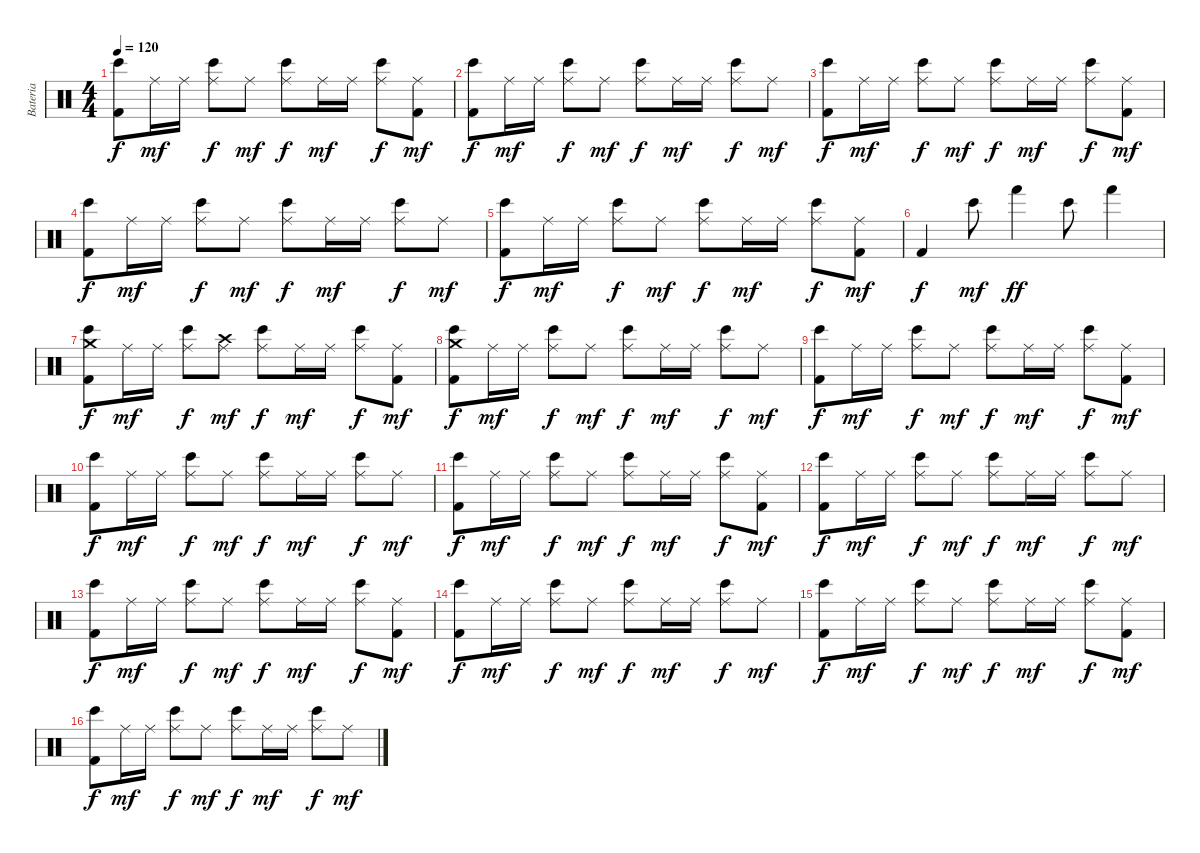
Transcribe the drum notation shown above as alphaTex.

\track ("Bateria" "Bateria") {instrument percussion}
\staff {score}
\articulation defaults
\ts (4 4)
\tempo 120
\clef neutral
\ks c
("Kick (hit) 2" "Bongo High (hit)").8{dy f} "Ride (middle)".16{dy mf} "Ride (middle)".16 ("Bongo High (hit)" "Ride (middle)").8{dy f} "Ride (middle)".8{dy mf} ("Bongo High (hit)" "Ride (middle)").8{dy f} "Ride (middle)".16{dy mf} "Ride (middle)".16 ("Bongo High (hit)" "Ride (middle)").8{dy f} ("Kick (hit) 2" "Ride (middle)").8{dy mf} |
("Kick (hit) 2" "Bongo High (hit)").8{dy f} "Ride (middle)".16{dy mf} "Ride (middle)".16 ("Bongo High (hit)" "Ride (middle)").8{dy f} "Ride (middle)".8{dy mf} ("Bongo High (hit)" "Ride (middle)").8{dy f} "Ride (middle)".16{dy mf} "Ride (middle)".16 ("Bongo High (hit)" "Ride (middle)").8{dy f} "Ride (middle)".8{dy mf} |
("Kick (hit) 2" "Bongo High (hit)").8{dy f} "Ride (middle)".16{dy mf} "Ride (middle)".16 ("Bongo High (hit)" "Ride (middle)").8{dy f} "Ride (middle)".8{dy mf} ("Bongo High (hit)" "Ride (middle)").8{dy f} "Ride (middle)".16{dy mf} "Ride (middle)".16 ("Bongo High (hit)" "Ride (middle)").8{dy f} ("Kick (hit) 2" "Ride (middle)").8{dy mf} |
("Kick (hit) 2" "Bongo High (hit)").8{dy f} "Ride (middle)".16{dy mf} "Ride (middle)".16 ("Bongo High (hit)" "Ride (middle)").8{dy f} "Ride (middle)".8{dy mf} ("Bongo High (hit)" "Ride (middle)").8{dy f} "Ride (middle)".16{dy mf} "Ride (middle)".16 ("Bongo High (hit)" "Ride (middle)").8{dy f} "Ride (middle)".8{dy mf} |
("Kick (hit) 2" "Bongo High (hit)").8{dy f} "Ride (middle)".16{dy mf} "Ride (middle)".16 ("Bongo High (hit)" "Ride (middle)").8{dy f} "Ride (middle)".8{dy mf} ("Bongo High (hit)" "Ride (middle)").8{dy f} "Ride (middle)".16{dy mf} "Ride (middle)".16 ("Bongo High (hit)" "Ride (middle)").8{dy f} ("Kick (hit) 2" "Ride (middle)").8{dy mf} |
"Kick (hit) 2".4{dy f} "Bongo High (hit)".8{dy mf} "Hand (hit)".4{dy ff} "Bongo High (hit)".8 "Hand (hit)".4 |
("Kick (hit) 2" "Bongo High (hit)" "Crash medium (hit)").8{dy f} "Ride (middle)".16{dy mf} "Ride (middle)".16 ("Bongo High (hit)" "Ride (middle)").8{dy f} ("Ride (middle)" "Crash high (hit)").8{dy mf} ("Bongo High (hit)" "Ride (middle)").8{dy f} "Ride (middle)".16{dy mf} "Ride (middle)".16 ("Bongo High (hit)" "Ride (middle)").8{dy f} ("Kick (hit) 2" "Ride (middle)").8{dy mf} |
("Kick (hit) 2" "Bongo High (hit)" "Crash medium (hit)").8{dy f} "Ride (middle)".16{dy mf} "Ride (middle)".16 ("Bongo High (hit)" "Ride (middle)").8{dy f} "Ride (middle)".8{dy mf} ("Bongo High (hit)" "Ride (middle)").8{dy f} "Ride (middle)".16{dy mf} "Ride (middle)".16 ("Bongo High (hit)" "Ride (middle)").8{dy f} "Ride (middle)".8{dy mf} |
("Kick (hit) 2" "Bongo High (hit)").8{dy f} "Ride (middle)".16{dy mf} "Ride (middle)".16 ("Bongo High (hit)" "Ride (middle)").8{dy f} "Ride (middle)".8{dy mf} ("Bongo High (hit)" "Ride (middle)").8{dy f} "Ride (middle)".16{dy mf} "Ride (middle)".16 ("Bongo High (hit)" "Ride (middle)").8{dy f} ("Kick (hit) 2" "Ride (middle)").8{dy mf} |
("Kick (hit) 2" "Bongo High (hit)").8{dy f} "Ride (middle)".16{dy mf} "Ride (middle)".16 ("Bongo High (hit)" "Ride (middle)").8{dy f} "Ride (middle)".8{dy mf} ("Bongo High (hit)" "Ride (middle)").8{dy f} "Ride (middle)".16{dy mf} "Ride (middle)".16 ("Bongo High (hit)" "Ride (middle)").8{dy f} "Ride (middle)".8{dy mf} |
("Kick (hit) 2" "Bongo High (hit)").8{dy f} "Ride (middle)".16{dy mf} "Ride (middle)".16 ("Bongo High (hit)" "Ride (middle)").8{dy f} "Ride (middle)".8{dy mf} ("Bongo High (hit)" "Ride (middle)").8{dy f} "Ride (middle)".16{dy mf} "Ride (middle)".16 ("Bongo High (hit)" "Ride (middle)").8{dy f} ("Kick (hit) 2" "Ride (middle)").8{dy mf} |
("Kick (hit) 2" "Bongo High (hit)").8{dy f} "Ride (middle)".16{dy mf} "Ride (middle)".16 ("Bongo High (hit)" "Ride (middle)").8{dy f} "Ride (middle)".8{dy mf} ("Bongo High (hit)" "Ride (middle)").8{dy f} "Ride (middle)".16{dy mf} "Ride (middle)".16 ("Bongo High (hit)" "Ride (middle)").8{dy f} "Ride (middle)".8{dy mf} |
("Kick (hit) 2" "Bongo High (hit)").8{dy f} "Ride (middle)".16{dy mf} "Ride (middle)".16 ("Bongo High (hit)" "Ride (middle)").8{dy f} "Ride (middle)".8{dy mf} ("Bongo High (hit)" "Ride (middle)").8{dy f} "Ride (middle)".16{dy mf} "Ride (middle)".16 ("Bongo High (hit)" "Ride (middle)").8{dy f} ("Kick (hit) 2" "Ride (middle)").8{dy mf} |
("Kick (hit) 2" "Bongo High (hit)").8{dy f} "Ride (middle)".16{dy mf} "Ride (middle)".16 ("Bongo High (hit)" "Ride (middle)").8{dy f} "Ride (middle)".8{dy mf} ("Bongo High (hit)" "Ride (middle)").8{dy f} "Ride (middle)".16{dy mf} "Ride (middle)".16 ("Bongo High (hit)" "Ride (middle)").8{dy f} "Ride (middle)".8{dy mf} |
("Kick (hit) 2" "Bongo High (hit)").8{dy f} "Ride (middle)".16{dy mf} "Ride (middle)".16 ("Bongo High (hit)" "Ride (middle)").8{dy f} "Ride (middle)".8{dy mf} ("Bongo High (hit)" "Ride (middle)").8{dy f} "Ride (middle)".16{dy mf} "Ride (middle)".16 ("Bongo High (hit)" "Ride (middle)").8{dy f} ("Kick (hit) 2" "Ride (middle)").8{dy mf} |
("Kick (hit) 2" "Bongo High (hit)").8{dy f} "Ride (middle)".16{dy mf} "Ride (middle)".16 ("Bongo High (hit)" "Ride (middle)").8{dy f} "Ride (middle)".8{dy mf} ("Bongo High (hit)" "Ride (middle)").8{dy f} "Ride (middle)".16{dy mf} "Ride (middle)".16 ("Bongo High (hit)" "Ride (middle)").8{dy f} "Ride (middle)".8{dy mf}
